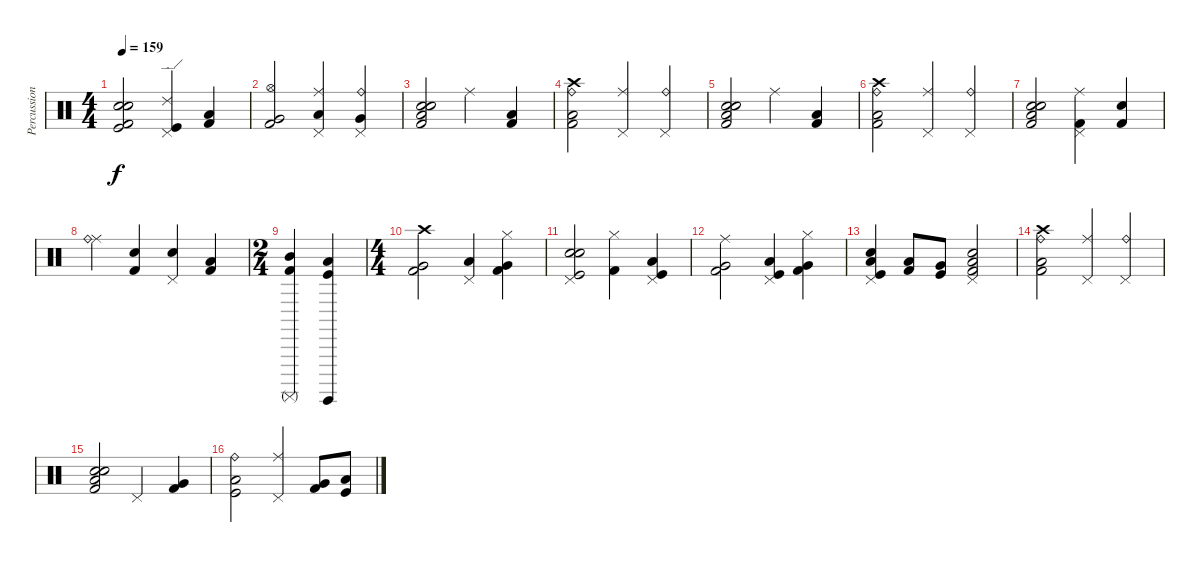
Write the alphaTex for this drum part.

\track ("Percussions" "Percussion") {instrument percussion}
\staff {score}
\articulation defaults
\ts (4 4)
\tempo 159
\clef neutral
\ks c
("Kick (hit)" "Kick (hit) 2" "Snare (hit) 2" "Electric Snare (hit)").2{dy f} ("Kick (hit)" "Pedal Hi-Hat (hit)" "Ride (edge) 2").4 ("Low Tom (hit)" "Kick (hit) 2").4 |
("Hi-Hat (open)" "Very Low Tom (hit)" "Kick (hit) 2").2 ("Ride (middle)" "Pedal Hi-Hat (hit)" "Low Tom (hit)").4 ("Pedal Hi-Hat (hit)" "Ride (bell)" "Very Low Tom (hit)").4 |
("Kick (hit) 2" "Low Tom (hit)" "Snare (hit) 2" "Electric Snare (hit)").2 "Ride (middle)".4 ("Low Tom (hit)" "Kick (hit) 2").4 |
("Ride (bell)" "Crash high (hit)" "Low Tom (hit)" "Kick (hit) 2").2 ("Ride (middle)" "Pedal Hi-Hat (hit)").4 ("Pedal Hi-Hat (hit)" "Ride (bell)").4 |
("Kick (hit) 2" "Low Tom (hit)" "Snare (hit) 2" "Electric Snare (hit)").2 "Ride (middle)".4 ("Low Tom (hit)" "Kick (hit) 2").4 |
("Ride (bell)" "Crash high (hit)" "Low Tom (hit)" "Kick (hit) 2").2 ("Ride (middle)" "Pedal Hi-Hat (hit)").4 ("Pedal Hi-Hat (hit)" "Ride (bell)").4 |
("Kick (hit) 2" "Low Tom (hit)" "Snare (hit) 2" "Electric Snare (hit)").2 ("Ride (middle)" "Pedal Hi-Hat (hit)" "Kick (hit) 2").4 ("Kick (hit) 2" "Electric Snare (hit)").4 |
("Ride (middle)" "Ride (bell)").4 ("Kick (hit) 2" "Electric Snare (hit)").4 ("Pedal Hi-Hat (hit)" "Snare (hit) 2").4 ("Low Tom (hit)" "Kick (hit) 2").4 |
\ts (2 4)
("Surdo (mute)" "Mid Tom (hit)" "Kick (hit) 2").4 ("Surdo (hit)" "Low Tom (hit)" "Kick (hit)").4 |
\ts (4 4)
("Crash high (hit)" "Very Low Tom (hit)" "Kick (hit) 2").2 ("Pedal Hi-Hat (hit)" "Low Tom (hit)").4 ("Hi-Hat (closed)" "Very Low Tom (hit)" "Kick (hit) 2").4 |
("Electric Snare (hit)" "Snare (hit) 2" "Pedal Hi-Hat (hit)" "Kick (hit)").2 ("Hi-Hat (closed)" "Kick (hit) 2").4 ("Kick (hit)" "Low Tom (hit)" "Pedal Hi-Hat (hit)").4 |
("Ride (middle)" "Very Low Tom (hit)" "Kick (hit) 2").2 ("Pedal Hi-Hat (hit)" "Low Tom (hit)" "Kick (hit)").4 ("Hi-Hat (closed)" "Very Low Tom (hit)" "Kick (hit) 2").4 |
("Kick (hit)" "Low Tom (hit)" "Electric Snare (hit)" "Pedal Hi-Hat (hit)").4 ("Low Tom (hit)" "Kick (hit) 2").8 ("Very Low Tom (hit)" "Kick (hit)").8 ("Kick (hit) 2" "Low Tom (hit)" "Electric Snare (hit)" "Pedal Hi-Hat (hit)").2 |
("Ride (bell)" "Crash high (hit)" "Low Tom (hit)" "Kick (hit) 2").2 ("Ride (middle)" "Pedal Hi-Hat (hit)").4 ("Pedal Hi-Hat (hit)" "Ride (bell)").4 |
("Kick (hit) 2" "Low Tom (hit)" "Snare (hit) 2" "Electric Snare (hit)").2 "Pedal Hi-Hat (hit)".4 ("Kick (hit) 2" "Very Low Tom (hit)").4 |
("Ride (bell)" "Low Tom (hit)" "Kick (hit)").2 ("Ride (middle)" "Pedal Hi-Hat (hit)").4 ("Kick (hit) 2" "Very Low Tom (hit)").8 ("Kick (hit)" "Low Tom (hit)").8
